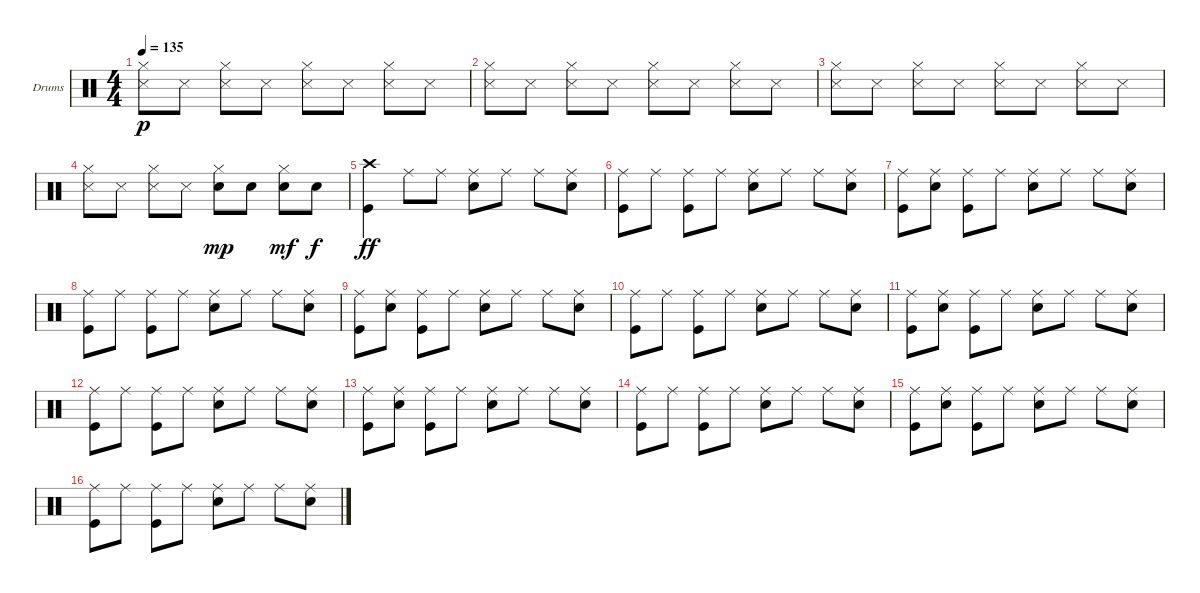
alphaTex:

\defaultSystemsLayout 4
\bracketExtendMode groupsimilarinstruments
\firstSystemTrackNameOrientation horizontal
\otherSystemsTrackNameOrientation horizontal
\track ("Drumkit" "Drums") {instrument percussion}
\staff {score}
\articulation defaults
\ts (4 4)
\tempo 135
\clef neutral
\scale
0.333333
\ks c
("Hi-Hat (closed)" "Snare (side stick) 3").8{dy p} "Snare (side stick) 3".8 ("Hi-Hat (closed)" "Snare (side stick) 3").8 "Snare (side stick) 3".8 ("Hi-Hat (closed)" "Snare (side stick) 3").8 "Snare (side stick) 3".8 ("Hi-Hat (closed)" "Snare (side stick) 3").8 "Snare (side stick) 3".8 |
\scale
0.333333 ("Hi-Hat (closed)" "Snare (side stick) 3").8 "Snare (side stick) 3".8 ("Hi-Hat (closed)" "Snare (side stick) 3").8 "Snare (side stick) 3".8 ("Hi-Hat (closed)" "Snare (side stick) 3").8 "Snare (side stick) 3".8 ("Hi-Hat (closed)" "Snare (side stick) 3").8 "Snare (side stick) 3".8 |
\scale
0.333333 ("Hi-Hat (closed)" "Snare (side stick) 3").8 "Snare (side stick) 3".8 ("Hi-Hat (closed)" "Snare (side stick) 3").8 "Snare (side stick) 3".8 ("Hi-Hat (closed)" "Snare (side stick) 3").8 "Snare (side stick) 3".8 ("Hi-Hat (closed)" "Snare (side stick) 3").8 "Snare (side stick) 3".8 |
\scale
0.333333 ("Hi-Hat (closed)" "Snare (side stick) 3").8 "Snare (side stick) 3".8 ("Hi-Hat (closed)" "Snare (side stick) 3").8 "Snare (side stick) 3".8 ("Hi-Hat (closed)" "Snare (hit) 2").8{dy mp} "Snare (hit) 2".8 ("Hi-Hat (closed)" "Snare (hit) 2").8{dy mf} "Snare (hit) 2".8{dy f} |
\scale
0.333333 ("Kick (hit)" "Crash high (hit)").4{dy ff} "Ride (middle)".8 "Ride (middle)".8 ("Ride (middle)" "Snare (hit) 2").8 "Ride (middle)".8 "Ride (middle)".8 ("Ride (middle)" "Snare (hit) 2").8 |
\scale
0.333333 ("Kick (hit)" "Ride (middle)").8 "Ride (middle)".8 ("Ride (middle)" "Kick (hit)").8 "Ride (middle)".8 ("Ride (middle)" "Snare (hit) 2").8 "Ride (middle)".8 "Ride (middle)".8 ("Ride (middle)" "Snare (hit) 2").8 |
\scale
0.333333 ("Kick (hit)" "Ride (middle)").8 ("Ride (middle)" "Snare (hit) 2").8 ("Ride (middle)" "Kick (hit)").8 "Ride (middle)".8 ("Ride (middle)" "Snare (hit) 2").8 "Ride (middle)".8 "Ride (middle)".8 ("Ride (middle)" "Snare (hit) 2").8 |
\scale
0.333333 ("Kick (hit)" "Ride (middle)").8 "Ride (middle)".8 ("Ride (middle)" "Kick (hit)").8 "Ride (middle)".8 ("Ride (middle)" "Snare (hit) 2").8 "Ride (middle)".8 "Ride (middle)".8 ("Ride (middle)" "Snare (hit) 2").8 |
\scale
0.333333 ("Kick (hit)" "Ride (middle)").8 ("Ride (middle)" "Snare (hit) 2").8 ("Ride (middle)" "Kick (hit)").8 "Ride (middle)".8 ("Ride (middle)" "Snare (hit) 2").8 "Ride (middle)".8 "Ride (middle)".8 ("Ride (middle)" "Snare (hit) 2").8 |
\scale
0.333333 ("Kick (hit)" "Ride (middle)").8 "Ride (middle)".8 ("Ride (middle)" "Kick (hit)").8 "Ride (middle)".8 ("Ride (middle)" "Snare (hit) 2").8 "Ride (middle)".8 "Ride (middle)".8 ("Ride (middle)" "Snare (hit) 2").8 |
\scale
0.333333 ("Kick (hit)" "Ride (middle)").8 ("Ride (middle)" "Snare (hit) 2").8 ("Ride (middle)" "Kick (hit)").8 "Ride (middle)".8 ("Ride (middle)" "Snare (hit) 2").8 "Ride (middle)".8 "Ride (middle)".8 ("Ride (middle)" "Snare (hit) 2").8 |
\scale
0.333333 ("Kick (hit)" "Ride (middle)").8 "Ride (middle)".8 ("Ride (middle)" "Kick (hit)").8 "Ride (middle)".8 ("Ride (middle)" "Snare (hit) 2").8 "Ride (middle)".8 "Ride (middle)".8 ("Ride (middle)" "Snare (hit) 2").8 |
\scale
0.333333 ("Kick (hit)" "Ride (middle)").8 ("Ride (middle)" "Snare (hit) 2").8 ("Ride (middle)" "Kick (hit)").8 "Ride (middle)".8 ("Ride (middle)" "Snare (hit) 2").8 "Ride (middle)".8 "Ride (middle)".8 ("Ride (middle)" "Snare (hit) 2").8 |
\scale
0.333333 ("Kick (hit)" "Ride (middle)").8 "Ride (middle)".8 ("Ride (middle)" "Kick (hit)").8 "Ride (middle)".8 ("Ride (middle)" "Snare (hit) 2").8 "Ride (middle)".8 "Ride (middle)".8 ("Ride (middle)" "Snare (hit) 2").8 |
\scale
0.333333 ("Kick (hit)" "Ride (middle)").8 ("Ride (middle)" "Snare (hit) 2").8 ("Ride (middle)" "Kick (hit)").8 "Ride (middle)".8 ("Ride (middle)" "Snare (hit) 2").8 "Ride (middle)".8 "Ride (middle)".8 ("Ride (middle)" "Snare (hit) 2").8 |
\scale
0.333333 ("Kick (hit)" "Ride (middle)").8 "Ride (middle)".8 ("Ride (middle)" "Kick (hit)").8 "Ride (middle)".8 ("Ride (middle)" "Snare (hit) 2").8 "Ride (middle)".8 "Ride (middle)".8 ("Ride (middle)" "Snare (hit) 2").8
